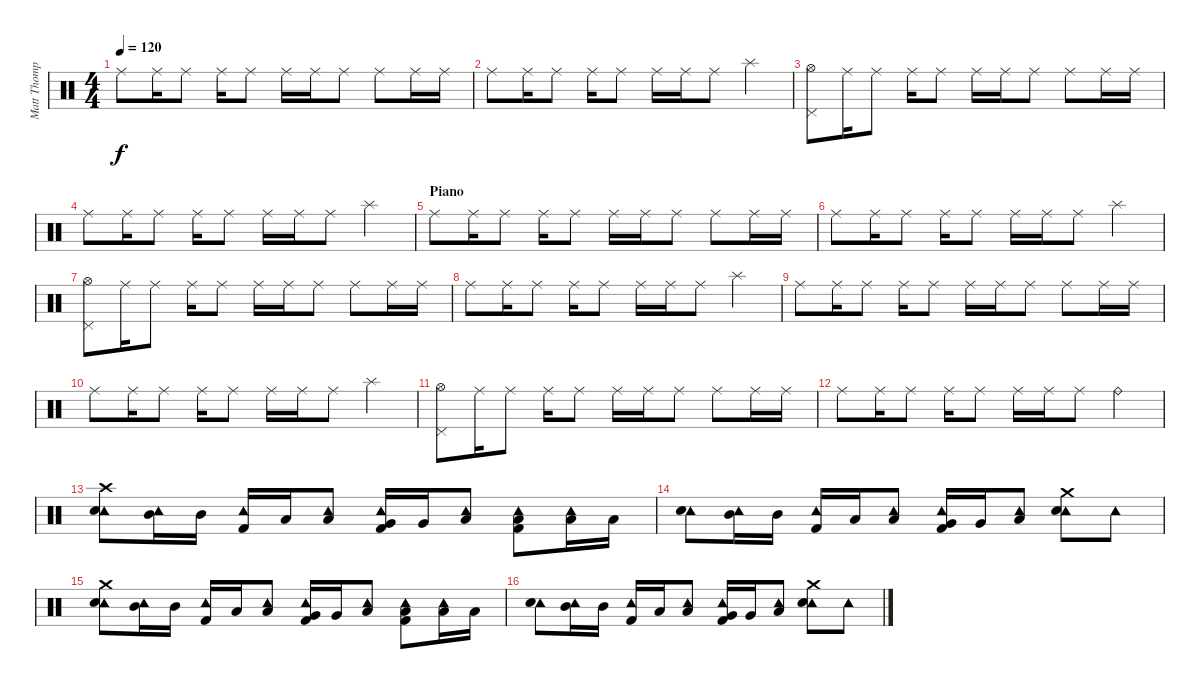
\track ("Matt Thompson" "Matt Thomp") {instrument percussion}
\staff {score}
\articulation defaults
\ts (4 4)
\tempo 120
\clef neutral
\ks c "Ride (middle)".8{dy f} "Ride (middle)".16 "Ride (middle)".8 "Ride (middle)".16 "Ride (middle)".8 "Ride (middle)".16 "Ride (middle)".16 "Ride (middle)".8 "Ride (middle)".8 "Ride (middle)".16 "Ride (middle)".16
|
"Ride (middle)".8 "Ride (middle)".16 "Ride (middle)".8 "Ride (middle)".16 "Ride (middle)".8 "Ride (middle)".16 "Ride (middle)".16 "Ride (middle)".8 "Splash (hit)".4 |
("Pedal Hi-Hat (hit)" "Hi-Hat (open)").8 "Ride (middle)".16 "Ride (middle)".8 "Ride (middle)".16 "Ride (middle)".8 "Ride (middle)".16 "Ride (middle)".16 "Ride (middle)".8 "Ride (middle)".8 "Ride (middle)".16 "Ride (middle)".16 |
"Ride (middle)".8 "Ride (middle)".16 "Ride (middle)".8 "Ride (middle)".16 "Ride (middle)".8 "Ride (middle)".16 "Ride (middle)".16 "Ride (middle)".8 "Splash (hit)".4 |
\section ("" "Piano")
"Ride (middle)".8 "Ride (middle)".16 "Ride (middle)".8 "Ride (middle)".16 "Ride (middle)".8 "Ride (middle)".16 "Ride (middle)".16 "Ride (middle)".8 "Ride (middle)".8 "Ride (middle)".16 "Ride (middle)".16 |
"Ride (middle)".8 "Ride (middle)".16 "Ride (middle)".8 "Ride (middle)".16 "Ride (middle)".8 "Ride (middle)".16 "Ride (middle)".16 "Ride (middle)".8 "Splash (hit)".4 |
("Pedal Hi-Hat (hit)" "Hi-Hat (open)").8 "Ride (middle)".16 "Ride (middle)".8 "Ride (middle)".16 "Ride (middle)".8 "Ride (middle)".16 "Ride (middle)".16 "Ride (middle)".8 "Ride (middle)".8 "Ride (middle)".16 "Ride (middle)".16 |
"Ride (middle)".8 "Ride (middle)".16 "Ride (middle)".8 "Ride (middle)".16 "Ride (middle)".8 "Ride (middle)".16 "Ride (middle)".16 "Ride (middle)".8 "Splash (hit)".4 |
"Ride (middle)".8 "Ride (middle)".16 "Ride (middle)".8 "Ride (middle)".16 "Ride (middle)".8 "Ride (middle)".16 "Ride (middle)".16 "Ride (middle)".8 "Ride (middle)".8 "Ride (middle)".16 "Ride (middle)".16 |
"Ride (middle)".8 "Ride (middle)".16 "Ride (middle)".8 "Ride (middle)".16 "Ride (middle)".8 "Ride (middle)".16 "Ride (middle)".16 "Ride (middle)".8 "Splash (hit)".4 |
("Pedal Hi-Hat (hit)" "Hi-Hat (open)").8 "Ride (middle)".16 "Ride (middle)".8 "Ride (middle)".16 "Ride (middle)".8 "Ride (middle)".16 "Ride (middle)".16 "Ride (middle)".8 "Ride (middle)".8 "Ride (middle)".16 "Ride (middle)".16 |
"Ride (middle)".8 "Ride (middle)".16 "Ride (middle)".8 "Ride (middle)".16 "Ride (middle)".8 "Ride (middle)".16 "Ride (middle)".16 "Ride (middle)".8 "Ride (bell)".4 |
("Crash high (hit)" "Tambourine (hit)" "Snare (hit) 2").8 ("Mid Tom (hit)" "Tambourine (hit)").16 "Mid Tom (hit)".16 ("Tambourine (hit)" "Kick (hit) 2").16 "Low Tom (hit)".16 ("Low Tom (hit)" "Tambourine (hit)").8 ("Very Low Tom (hit)" "Tambourine (hit)" "Kick (hit) 2").16 "Very Low Tom (hit)".16 ("Low Floor Tom (hit)" "Tambourine (hit)").8 ("Low Floor Tom (hit)" "Tambourine (hit)" "Kick (hit) 2").8 ("Low Floor Tom (hit)" "Tambourine (hit)").16 "Low Floor Tom (hit)".16 |
("Tambourine (hit)" "Snare (hit) 2").8 ("Mid Tom (hit)" "Tambourine (hit)").16 "Mid Tom (hit)".16 ("Tambourine (hit)" "Kick (hit) 2").16 "Low Tom (hit)".16 ("Low Tom (hit)" "Tambourine (hit)").8 ("Very Low Tom (hit)" "Tambourine (hit)" "Kick (hit) 2").16 "Very Low Tom (hit)".16 ("Low Floor Tom (hit)" "Tambourine (hit)").8 ("Crash medium (hit)" "Tambourine (hit)" "Snare (hit) 2").8 "Tambourine (hit)".8 |
("Crash medium (hit)" "Tambourine (hit)" "Snare (hit) 2").8 ("Mid Tom (hit)" "Tambourine (hit)").16 "Mid Tom (hit)".16 ("Tambourine (hit)" "Kick (hit) 2").16 "Low Tom (hit)".16 ("Low Tom (hit)" "Tambourine (hit)").8 ("Very Low Tom (hit)" "Tambourine (hit)" "Kick (hit) 2").16 "Very Low Tom (hit)".16 ("Low Floor Tom (hit)" "Tambourine (hit)").8 ("Low Floor Tom (hit)" "Tambourine (hit)" "Kick (hit) 2").8 ("Low Floor Tom (hit)" "Tambourine (hit)").16 "Low Floor Tom (hit)".16 |
("Tambourine (hit)" "Snare (hit) 2").8 ("Mid Tom (hit)" "Tambourine (hit)").16 "Mid Tom (hit)".16 ("Tambourine (hit)" "Kick (hit) 2").16 "Low Tom (hit)".16 ("Low Tom (hit)" "Tambourine (hit)").8 ("Very Low Tom (hit)" "Tambourine (hit)" "Kick (hit) 2").16 "Very Low Tom (hit)".16 ("Low Floor Tom (hit)" "Tambourine (hit)").8 ("Crash medium (hit)" "Tambourine (hit)" "Snare (hit) 2").8 "Tambourine (hit)".8
